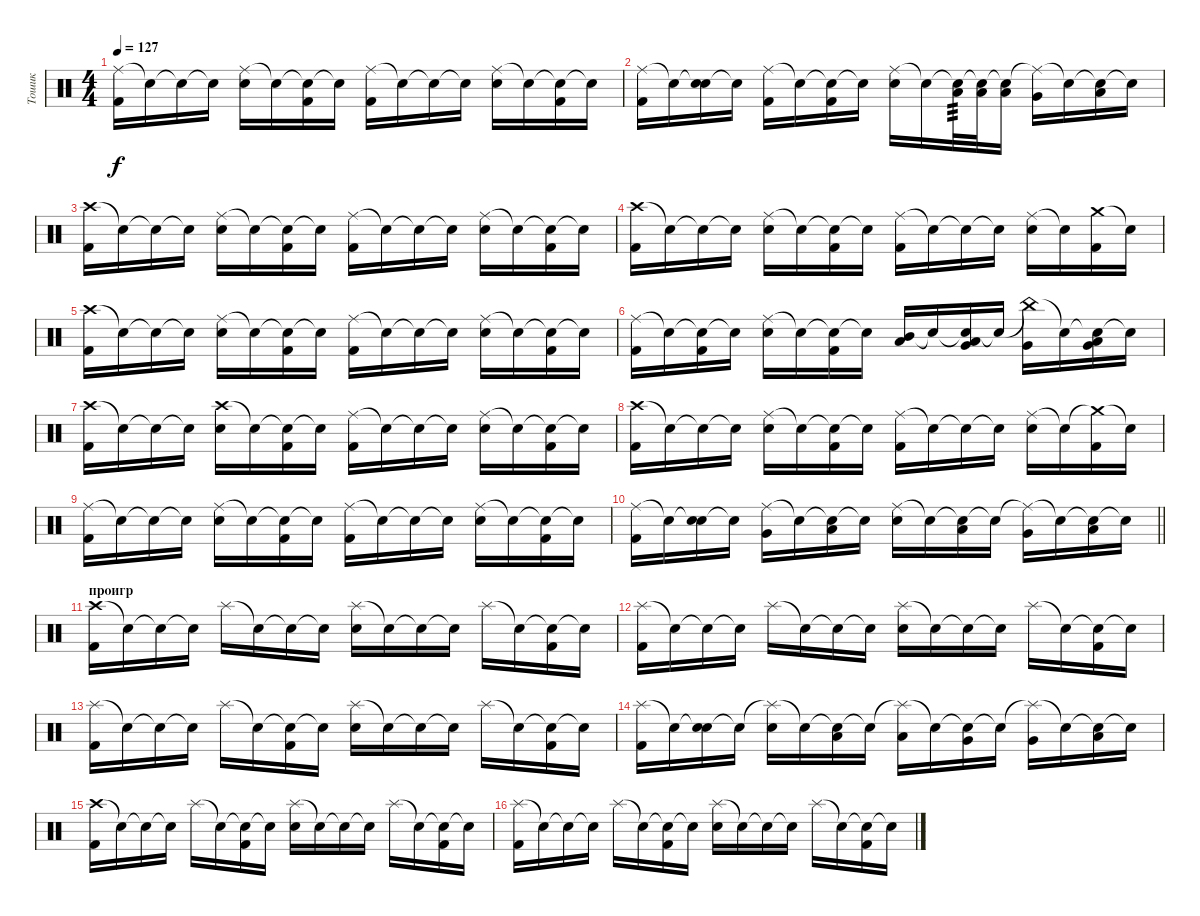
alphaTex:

\track ("Тошик" "Тошик") {instrument percussion}
\staff {score}
\articulation defaults
\ts (4 4)
\tempo 127
\clef neutral
\ks c
("Ride (middle)" "Kick (hit) 2").16{dy f} "Snare (hit)"{t}.16 "Snare (hit)"{t}.16 "Snare (hit)"{t}.16 ("Ride (middle)" "Snare (hit) 2").16 "Snare (hit)"{t}.16 ("Snare (hit)"{t} "Kick (hit) 2").16 "Snare (hit)"{t}.16 ("Ride (middle)" "Kick (hit) 2").16 "Snare (hit)"{t}.16 "Snare (hit)"{t}.16 "Snare (hit)"{t}.16 ("Ride (middle)" "Snare (hit) 2").16 "Snare (hit)"{t}.16 ("Snare (hit)"{t} "Kick (hit) 2").16 "Snare (hit)"{t}.16 |
("Ride (middle)" "Kick (hit) 2").16 "Snare (hit)"{t}.16 ("Snare (hit)"{t} "Snare (hit) 2").16 "Snare (hit)"{t}.16 ("Ride (middle)" "Kick (hit) 2").16 "Snare (hit)"{t}.16 ("Snare (hit)"{t} "Kick (hit) 2").16 "Snare (hit)"{t}.16 ("Ride (middle)" "Snare (hit) 2").16 "Snare (hit)"{t}.16 ("Snare (hit)"{t} "Low Tom (hit)").32{tp 3} ("Snare (hit)"{t} "Low Tom (hit)").32 ("Snare (hit)"{t} "Low Tom (hit)").16 ("Ride (middle)"{t} "Very Low Tom (hit)").16 "Snare (hit)"{t}.16 ("Snare (hit)"{t} "Low Floor Tom (hit)").16 "Snare (hit)"{t}.16 |
("Crash high (hit)" "Kick (hit) 2").16 "Snare (hit)"{t}.16 "Snare (hit)"{t}.16 "Snare (hit)"{t}.16 ("Ride (middle)" "Snare (hit) 2").16 "Snare (hit)"{t}.16 ("Snare (hit)"{t} "Kick (hit) 2").16 "Snare (hit)"{t}.16 ("Ride (middle)" "Kick (hit) 2").16 "Snare (hit)"{t}.16 "Snare (hit)"{t}.16 "Snare (hit)"{t}.16 ("Ride (middle)" "Snare (hit) 2").16 "Snare (hit)"{t}.16 ("Snare (hit)"{t} "Kick (hit) 2").16 "Snare (hit)"{t}.16 |
("Crash high (hit)" "Kick (hit) 2").16 "Snare (hit)"{t}.16 "Snare (hit)"{t}.16 "Snare (hit)"{t}.16 ("Ride (middle)" "Snare (hit) 2").16 "Snare (hit)"{t}.16 ("Snare (hit)"{t} "Kick (hit) 2").16 "Snare (hit)"{t}.16 ("Ride (middle)" "Kick (hit) 2").16 "Snare (hit)"{t}.16 "Snare (hit)"{t}.16 "Snare (hit)"{t}.16 ("Ride (middle)" "Snare (hit) 2").16 "Snare (hit)"{t}.16 ("Crash medium (hit)" "Kick (hit) 2").16 "Snare (hit)"{t}.16 |
("Crash high (hit)" "Kick (hit) 2").16 "Snare (hit)"{t}.16 "Snare (hit)"{t}.16 "Snare (hit)"{t}.16 ("Ride (middle)" "Snare (hit) 2").16 "Snare (hit)"{t}.16 ("Snare (hit)"{t} "Kick (hit) 2").16 "Snare (hit)"{t}.16 ("Ride (middle)" "Kick (hit) 2").16 "Snare (hit)"{t}.16 "Snare (hit)"{t}.16 "Snare (hit)"{t}.16 ("Ride (middle)" "Snare (hit) 2").16 "Snare (hit)"{t}.16 ("Snare (hit)"{t} "Kick (hit) 2").16 "Snare (hit)"{t}.16 |
("Ride (middle)" "Kick (hit) 2").16 "Snare (hit)"{t}.16 ("Snare (hit)"{t} "Kick (hit) 2").16 "Snare (hit)"{t}.16 ("Ride (middle)" "Snare (hit) 2").16 "Snare (hit)"{t}.16 ("Snare (hit)"{t} "Kick (hit) 2").16 "Snare (hit)"{t}.16 ("Mid Tom (hit)" "Low Tom (hit)").16 "Snare (hit)"{t}.16 ("Snare (hit)"{t} "Low Tom (hit)" "Very Low Tom (hit)").16 "Snare (hit)"{t}.16 ("China (hit)"{t} "Very Low Tom (hit)").16 "Snare (hit)"{t}.16 ("Snare (hit)"{t} "Very Low Tom (hit)" "Low Floor Tom (hit)").16 "Snare (hit)"{t}.16 |
("Crash high (hit)" "Kick (hit) 2").16 "Snare (hit)"{t}.16 "Snare (hit)"{t}.16 "Snare (hit)"{t}.16 ("Crash high (hit)" "Snare (hit) 2").16 "Snare (hit)"{t}.16 ("Snare (hit)"{t} "Kick (hit) 2").16 "Snare (hit)"{t}.16 ("Ride (middle)" "Kick (hit) 2").16 "Snare (hit)"{t}.16 "Snare (hit)"{t}.16 "Snare (hit)"{t}.16 ("Ride (middle)" "Snare (hit) 2").16 "Snare (hit)"{t}.16 ("Snare (hit)"{t} "Kick (hit) 2").16 "Snare (hit)"{t}.16 |
("Crash high (hit)" "Kick (hit) 2").16 "Snare (hit)"{t}.16 "Snare (hit)"{t}.16 "Snare (hit)"{t}.16 ("Ride (middle)" "Snare (hit) 2").16 "Snare (hit)"{t}.16 ("Snare (hit)"{t} "Kick (hit) 2").16 "Snare (hit)"{t}.16 ("Ride (middle)" "Kick (hit) 2").16 "Snare (hit)"{t}.16 "Snare (hit)"{t}.16 "Snare (hit)"{t}.16 ("Ride (middle)" "Snare (hit) 2").16 "Snare (hit)"{t}.16 ("Crash medium (hit)"{t} "Kick (hit) 2").16 "Snare (hit)"{t}.16 |
("Ride (middle)" "Kick (hit) 2").16 "Snare (hit)"{t}.16 "Snare (hit)"{t}.16 "Snare (hit)"{t}.16 ("Ride (middle)" "Snare (hit) 2").16 "Snare (hit)"{t}.16 ("Snare (hit)"{t} "Kick (hit) 2").16 "Snare (hit)"{t}.16 ("Ride (middle)" "Kick (hit) 2").16 "Snare (hit)"{t}.16 "Snare (hit)"{t}.16 "Snare (hit)"{t}.16 ("Ride (middle)" "Snare (hit) 2").16 "Snare (hit)"{t}.16 ("Snare (hit)"{t} "Kick (hit) 2").16 "Snare (hit)"{t}.16 |
\barLineRight lightlight
("Ride (middle)" "Kick (hit) 2").16 "Snare (hit)"{t}.16 ("Snare (hit)"{t} "Snare (hit) 2").16 "Snare (hit)"{t}.16 ("Ride (middle)" "Very Low Tom (hit)").16 "Snare (hit)"{t}.16 ("Snare (hit)"{t} "Low Floor Tom (hit)").16 "Snare (hit)"{t}.16 ("Ride (middle)" "Snare (hit) 2").16 "Snare (hit)"{t}.16 ("Snare (hit)"{t} "Low Tom (hit)").16 "Snare (hit)"{t}.16 ("Ride (middle)"{t} "Very Low Tom (hit)").16 "Snare (hit)"{t}.16 ("Snare (hit)"{t} "Low Floor Tom (hit)").16 "Snare (hit)"{t}.16 |
\section ("" "проигр")
("Crash high (hit)" "Kick (hit) 2").16 "Snare (hit)"{t}.16 "Snare (hit)"{t}.16 "Snare (hit)"{t}.16 "Splash (hit)".16 "Snare (hit)"{t}.16 "Snare (hit)"{t}.16 "Snare (hit)"{t}.16 ("Splash (hit)" "Snare (hit) 2").16 "Snare (hit)"{t}.16 "Snare (hit)"{t}.16 "Snare (hit)"{t}.16 "Splash (hit)".16 "Snare (hit)"{t}.16 ("Snare (hit)"{t} "Kick (hit) 2").16 "Snare (hit)"{t}.16 |
("Splash (hit)" "Kick (hit) 2").16 "Snare (hit)"{t}.16 "Snare (hit)"{t}.16 "Snare (hit)"{t}.16 "Splash (hit)".16 "Snare (hit)"{t}.16 "Snare (hit)"{t}.16 "Snare (hit)"{t}.16 ("Splash (hit)" "Snare (hit) 2").16 "Snare (hit)"{t}.16 "Snare (hit)"{t}.16 "Snare (hit)"{t}.16 "Splash (hit)".16 "Snare (hit)"{t}.16 ("Snare (hit)"{t} "Kick (hit) 2").16 "Snare (hit)"{t}.16 |
("Splash (hit)" "Kick (hit) 2").16 "Snare (hit)"{t}.16 "Snare (hit)"{t}.16 "Snare (hit)"{t}.16 "Splash (hit)".16 "Snare (hit)"{t}.16 ("Snare (hit)"{t} "Kick (hit) 2").16 "Snare (hit)"{t}.16 ("Splash (hit)" "Snare (hit) 2").16 "Snare (hit)"{t}.16 "Snare (hit)"{t}.16 "Snare (hit)"{t}.16 "Splash (hit)".16 "Snare (hit)"{t}.16 ("Snare (hit)"{t} "Kick (hit) 2").16 "Snare (hit)"{t}.16 |
("Splash (hit)" "Kick (hit) 2").16 "Snare (hit)"{t}.16 ("Snare (hit)"{t} "Snare (hit) 2").16 "Snare (hit)"{t}.16 ("Splash (hit)"{t} "Snare (hit) 2").16 "Snare (hit)"{t}.16 ("Snare (hit)"{t} "Low Tom (hit)").16 "Snare (hit)"{t}.16 ("Splash (hit)"{t} "Low Tom (hit)").16 "Snare (hit)"{t}.16 ("Snare (hit)"{t} "Very Low Tom (hit)").16 "Snare (hit)"{t}.16 ("Splash (hit)"{t} "Very Low Tom (hit)").16 "Snare (hit)"{t}.16 ("Snare (hit)"{t} "Low Floor Tom (hit)").16 "Snare (hit)"{t}.16 |
("Crash high (hit)" "Kick (hit) 2").16 "Snare (hit)"{t}.16 "Snare (hit)"{t}.16 "Snare (hit)"{t}.16 "Splash (hit)".16 "Snare (hit)"{t}.16 ("Snare (hit)"{t} "Kick (hit) 2").16 "Snare (hit)"{t}.16 ("Splash (hit)" "Snare (hit) 2").16 "Snare (hit)"{t}.16 "Snare (hit)"{t}.16 "Snare (hit)"{t}.16 "Splash (hit)".16 "Snare (hit)"{t}.16 ("Snare (hit)"{t} "Kick (hit) 2").16 "Snare (hit)"{t}.16 |
("Splash (hit)" "Kick (hit) 2").16 "Snare (hit)"{t}.16 "Snare (hit)"{t}.16 "Snare (hit)"{t}.16 "Splash (hit)".16 "Snare (hit)"{t}.16 ("Snare (hit)"{t} "Kick (hit) 2").16 "Snare (hit)"{t}.16 ("Splash (hit)" "Snare (hit) 2").16 "Snare (hit)"{t}.16 "Snare (hit)"{t}.16 "Snare (hit)"{t}.16 "Splash (hit)".16 "Snare (hit)"{t}.16 ("Snare (hit)"{t} "Kick (hit) 2").16 "Snare (hit)"{t}.16
